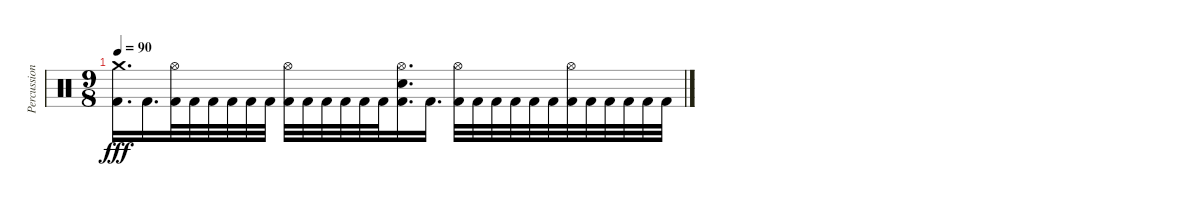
\track ("Percussion" "Percussion") {instrument percussion}
\staff {score}
\articulation defaults
\ts (9 8)
\tempo 90
\clef neutral
\ks c
("Crash medium (hit)" "Kick (hit) 2").16{d dy fff} "Kick (hit) 2".16{d} ("Hi-Hat (open)" "Kick (hit) 2").32 "Kick (hit) 2".32 "Kick (hit) 2".32 "Kick (hit) 2".32 "Kick (hit) 2".32 "Kick (hit) 2".32 ("Hi-Hat (open)" "Kick (hit) 2").32 "Kick (hit) 2".32 "Kick (hit) 2".32 "Kick (hit) 2".32 "Kick (hit) 2".32 "Kick (hit) 2".32 ("Hi-Hat (open)" "Electric Snare (hit)" "Kick (hit) 2").16{d} "Kick (hit) 2".16{d} ("Hi-Hat (open)" "Kick (hit) 2").32 "Kick (hit) 2".32 "Kick (hit) 2".32 "Kick (hit) 2".32 "Kick (hit) 2".32 "Kick (hit) 2".32 ("Hi-Hat (open)" "Kick (hit) 2").32 "Kick (hit) 2".32 "Kick (hit) 2".32 "Kick (hit) 2".32 "Kick (hit) 2".32 "Kick (hit) 2".32
